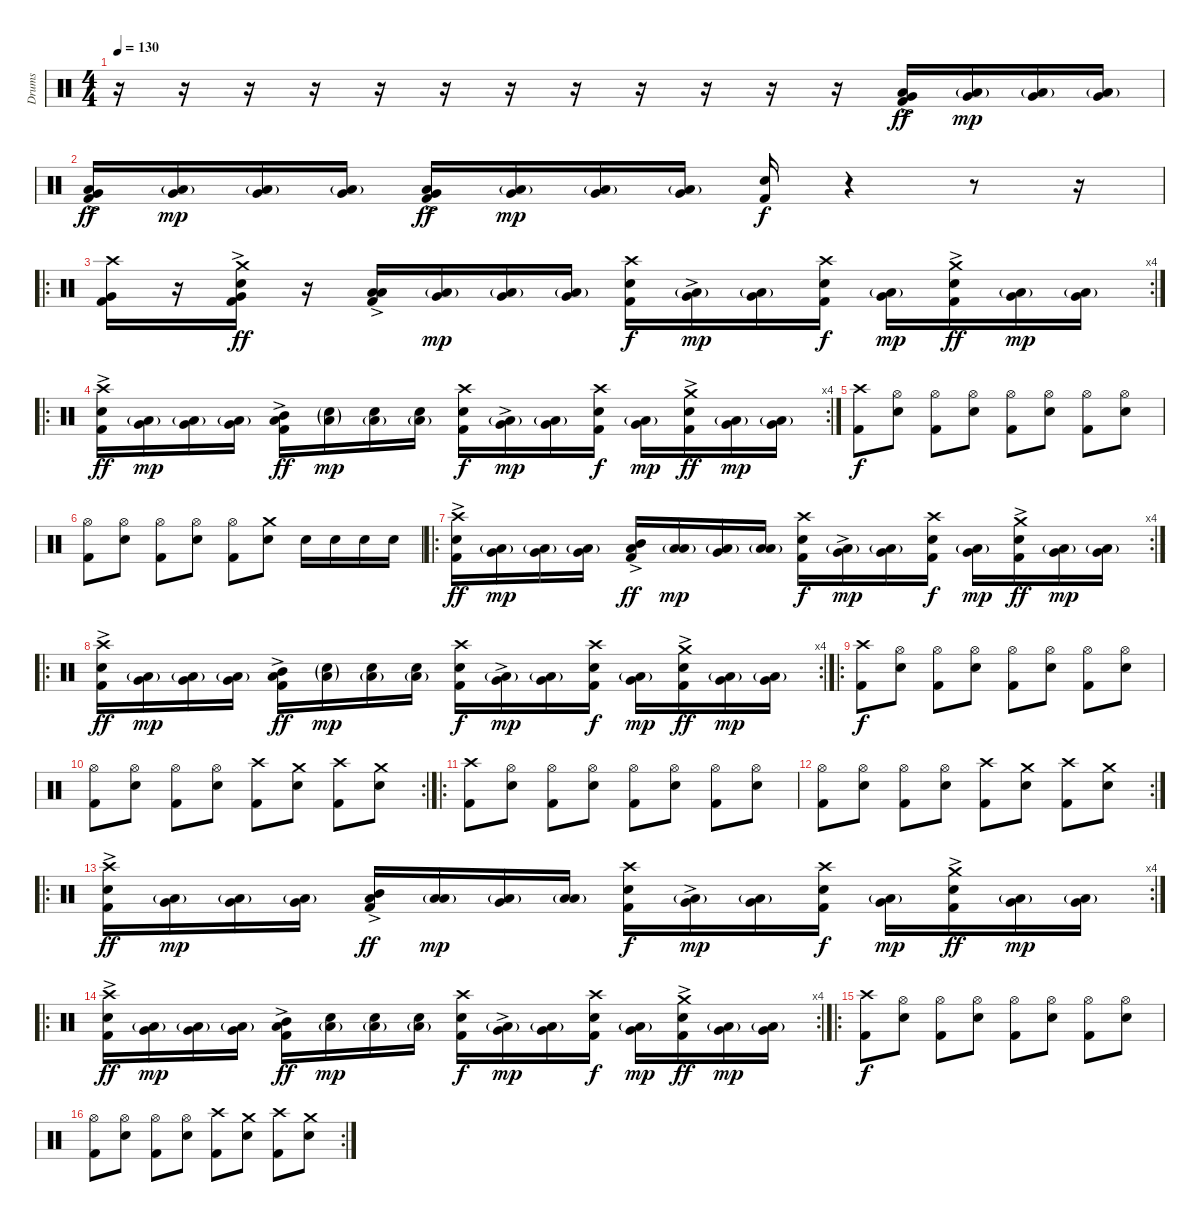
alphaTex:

\track ("Drums" "Drums") {instrument percussion}
\staff {score}
\articulation defaults
\ts (4 4)
\tempo 130
\clef neutral
\ks c
r.16{dy ff} r.16 r.16 r.16 r.16 r.16 r.16 r.16 r.16 r.16 r.16 r.16 ("Very Low Tom (hit)"{ac} "Low Floor Tom (hit)" "Kick (hit) 2").16 ("Very Low Tom (hit)" "Low Floor Tom (hit)"{g}).16{dy mp} ("Very Low Tom (hit)" "Low Floor Tom (hit)"{g}).16 ("Very Low Tom (hit)" "Low Floor Tom (hit)"{g}).16 |
("Very Low Tom (hit)"{ac} "Low Floor Tom (hit)" "Kick (hit) 2").16{dy ff} ("Very Low Tom (hit)" "Low Floor Tom (hit)"{g}).16{dy mp} ("Very Low Tom (hit)" "Low Floor Tom (hit)"{g}).16 ("Very Low Tom (hit)" "Low Floor Tom (hit)"{g}).16 ("Very Low Tom (hit)"{ac} "Low Floor Tom (hit)" "Kick (hit) 2").16{dy ff} ("Very Low Tom (hit)" "Low Floor Tom (hit)"{g}).16{dy mp} ("Very Low Tom (hit)" "Low Floor Tom (hit)"{g}).16 ("Very Low Tom (hit)" "Low Floor Tom (hit)"{g}).16 ("Snare (hit) 2" "Kick (hit) 2").16{dy f} r.4 r.8 r.16 |
\ro
\rc 4
("Crash high (hit)" "Very Low Tom (hit)" "Kick (hit) 2").16 r.16 ("Crash medium (hit)" "Snare (hit) 2"{ac} "Very Low Tom (hit)" "Kick (hit) 2").16{dy ff} r.16 ("Low Tom (hit)"{ac} "Low Floor Tom (hit)" "Kick (hit) 2").16 ("Very Low Tom (hit)" "Low Floor Tom (hit)"{g}).16{dy mp} ("Very Low Tom (hit)" "Low Floor Tom (hit)"{g}).16 ("Very Low Tom (hit)" "Low Floor Tom (hit)"{g}).16 ("Crash high (hit)" "Snare (hit) 2" "Kick (hit) 2").16{dy f} ("Very Low Tom (hit)"{ac} "Low Floor Tom (hit)"{g}).16{dy mp} ("Very Low Tom (hit)" "Low Floor Tom (hit)"{g}).16 ("Crash high (hit)" "Snare (hit) 2" "Kick (hit) 2").16{dy f} ("Very Low Tom (hit)" "Low Floor Tom (hit)"{g}).16{dy mp} ("Crash medium (hit)" "Snare (hit) 2"{ac} "Kick (hit) 2").16{dy ff} ("Very Low Tom (hit)" "Low Floor Tom (hit)"{g}).16{dy mp} ("Very Low Tom (hit)" "Low Floor Tom (hit)"{g}).16 |
\ro
\rc 4
("Crash high (hit)" "Snare (hit) 2"{ac} "Kick (hit) 2").16{dy ff} ("Very Low Tom (hit)" "Low Floor Tom (hit)"{g}).16{dy mp} ("Very Low Tom (hit)" "Low Floor Tom (hit)"{g}).16 ("Very Low Tom (hit)" "Low Floor Tom (hit)"{g}).16 ("Mid Tom (hit)"{ac} "Low Floor Tom (hit)" "Kick (hit) 2").16{dy ff} ("Snare (hit) 2"{g} "Low Floor Tom (hit)"{g}).16{dy mp} ("Snare (hit) 2" "Low Floor Tom (hit)"{g}).16 ("Snare (hit) 2" "Low Floor Tom (hit)"{g}).16 ("Crash high (hit)" "Snare (hit) 2" "Kick (hit) 2").16{dy f} ("Very Low Tom (hit)"{ac} "Low Floor Tom (hit)"{g}).16{dy mp} ("Very Low Tom (hit)" "Low Floor Tom (hit)"{g}).16 ("Crash high (hit)" "Snare (hit) 2" "Kick (hit) 2").16{dy f} ("Very Low Tom (hit)" "Low Floor Tom (hit)"{g}).16{dy mp} ("Crash medium (hit)" "Snare (hit) 2"{ac} "Kick (hit) 2").16{dy ff} ("Very Low Tom (hit)" "Low Floor Tom (hit)"{g}).16{dy mp} ("Very Low Tom (hit)" "Low Floor Tom (hit)"{g}).16 |
("Crash high (hit)" "Kick (hit) 2").8{dy f} ("Hi-Hat (open)" "Snare (hit) 2").8 ("Hi-Hat (open)" "Kick (hit) 2").8 ("Hi-Hat (open)" "Snare (hit) 2").8 ("Hi-Hat (open)" "Kick (hit) 2").8 ("Hi-Hat (open)" "Snare (hit) 2").8 ("Hi-Hat (open)" "Kick (hit) 2").8 ("Hi-Hat (open)" "Snare (hit) 2").8 |
("Hi-Hat (open)" "Kick (hit) 2").8 ("Hi-Hat (open)" "Snare (hit) 2").8 ("Hi-Hat (open)" "Kick (hit) 2").8 ("Hi-Hat (open)" "Snare (hit) 2").8 ("Hi-Hat (open)" "Kick (hit) 2").8 ("Crash medium (hit)" "Snare (hit) 2").8 "Snare (hit) 2".16 "Snare (hit) 2".16 "Snare (hit) 2".16 "Snare (hit) 2".16 |
\ro
\rc 4
("Crash high (hit)" "Snare (hit) 2"{ac} "Kick (hit) 2").16{dy ff} ("Very Low Tom (hit)" "Low Floor Tom (hit)"{g}).16{dy mp} ("Very Low Tom (hit)" "Low Floor Tom (hit)"{g}).16 ("Very Low Tom (hit)" "Low Floor Tom (hit)"{g}).16 ("Mid Tom (hit)"{ac} "Low Floor Tom (hit)" "Kick (hit) 2").16{dy ff} ("Low Tom (hit)" "Low Floor Tom (hit)"{g}).16{dy mp} ("Very Low Tom (hit)" "Low Floor Tom (hit)"{g}).16 ("Low Floor Tom (hit)" "Low Floor Tom (hit)"{g}).16 ("Crash high (hit)" "Snare (hit) 2" "Kick (hit) 2").16{dy f} ("Very Low Tom (hit)"{ac} "Low Floor Tom (hit)"{g}).16{dy mp} ("Very Low Tom (hit)" "Low Floor Tom (hit)"{g}).16 ("Crash high (hit)" "Snare (hit) 2" "Kick (hit) 2").16{dy f} ("Very Low Tom (hit)" "Low Floor Tom (hit)"{g}).16{dy mp} ("Crash medium (hit)" "Snare (hit) 2"{ac} "Kick (hit) 2").16{dy ff} ("Very Low Tom (hit)" "Low Floor Tom (hit)"{g}).16{dy mp} ("Very Low Tom (hit)" "Low Floor Tom (hit)"{g}).16 |
\ro
\rc 4
("Crash high (hit)" "Snare (hit) 2"{ac} "Kick (hit) 2").16{dy ff} ("Very Low Tom (hit)" "Low Floor Tom (hit)"{g}).16{dy mp} ("Very Low Tom (hit)" "Low Floor Tom (hit)"{g}).16 ("Very Low Tom (hit)" "Low Floor Tom (hit)"{g}).16 ("Mid Tom (hit)"{ac} "Low Floor Tom (hit)" "Kick (hit) 2").16{dy ff} ("Snare (hit) 2"{g} "Low Floor Tom (hit)"{g}).16{dy mp} ("Snare (hit) 2" "Low Floor Tom (hit)"{g}).16 ("Snare (hit) 2" "Low Floor Tom (hit)"{g}).16 ("Crash high (hit)" "Snare (hit) 2" "Kick (hit) 2").16{dy f} ("Very Low Tom (hit)"{ac} "Low Floor Tom (hit)"{g}).16{dy mp} ("Very Low Tom (hit)" "Low Floor Tom (hit)"{g}).16 ("Crash high (hit)" "Snare (hit) 2" "Kick (hit) 2").16{dy f} ("Very Low Tom (hit)" "Low Floor Tom (hit)"{g}).16{dy mp} ("Crash medium (hit)" "Snare (hit) 2"{ac} "Kick (hit) 2").16{dy ff} ("Very Low Tom (hit)" "Low Floor Tom (hit)"{g}).16{dy mp} ("Very Low Tom (hit)" "Low Floor Tom (hit)"{g}).16 |
\ro
("Crash high (hit)" "Kick (hit) 2").8{dy f} ("Hi-Hat (open)" "Snare (hit) 2").8 ("Hi-Hat (open)" "Kick (hit) 2").8 ("Hi-Hat (open)" "Snare (hit) 2").8 ("Hi-Hat (open)" "Kick (hit) 2").8 ("Hi-Hat (open)" "Snare (hit) 2").8 ("Hi-Hat (open)" "Kick (hit) 2").8 ("Hi-Hat (open)" "Snare (hit) 2").8 |
\rc 2
("Hi-Hat (open)" "Kick (hit) 2").8 ("Hi-Hat (open)" "Snare (hit) 2").8 ("Hi-Hat (open)" "Kick (hit) 2").8 ("Hi-Hat (open)" "Snare (hit) 2").8 ("Crash high (hit)" "Kick (hit) 2").8 ("Crash medium (hit)" "Snare (hit) 2").8 ("Crash high (hit)" "Kick (hit) 2").8 ("Crash medium (hit)" "Snare (hit) 2").8 |
\ro
("Crash high (hit)" "Kick (hit) 2").8 ("Hi-Hat (open)" "Snare (hit) 2").8 ("Hi-Hat (open)" "Kick (hit) 2").8 ("Hi-Hat (open)" "Snare (hit) 2").8 ("Hi-Hat (open)" "Kick (hit) 2").8 ("Hi-Hat (open)" "Snare (hit) 2").8 ("Hi-Hat (open)" "Kick (hit) 2").8 ("Hi-Hat (open)" "Snare (hit) 2").8 |
\rc 2
("Hi-Hat (open)" "Kick (hit) 2").8 ("Hi-Hat (open)" "Snare (hit) 2").8 ("Hi-Hat (open)" "Kick (hit) 2").8 ("Hi-Hat (open)" "Snare (hit) 2").8 ("Crash high (hit)" "Kick (hit) 2").8 ("Crash medium (hit)" "Snare (hit) 2").8 ("Crash high (hit)" "Kick (hit) 2").8 ("Crash medium (hit)" "Snare (hit) 2").8 |
\ro
\rc 4
("Crash high (hit)" "Snare (hit) 2"{ac} "Kick (hit) 2").16{dy ff} ("Very Low Tom (hit)" "Low Floor Tom (hit)"{g}).16{dy mp} ("Very Low Tom (hit)" "Low Floor Tom (hit)"{g}).16 ("Very Low Tom (hit)" "Low Floor Tom (hit)"{g}).16 ("Mid Tom (hit)"{ac} "Low Floor Tom (hit)" "Kick (hit) 2").16{dy ff} ("Low Tom (hit)" "Low Floor Tom (hit)"{g}).16{dy mp} ("Very Low Tom (hit)" "Low Floor Tom (hit)"{g}).16 ("Low Floor Tom (hit)" "Low Floor Tom (hit)"{g}).16 ("Crash high (hit)" "Snare (hit) 2" "Kick (hit) 2").16{dy f} ("Very Low Tom (hit)"{ac} "Low Floor Tom (hit)"{g}).16{dy mp} ("Very Low Tom (hit)" "Low Floor Tom (hit)"{g}).16 ("Crash high (hit)" "Snare (hit) 2" "Kick (hit) 2").16{dy f} ("Very Low Tom (hit)" "Low Floor Tom (hit)"{g}).16{dy mp} ("Crash medium (hit)" "Snare (hit) 2"{ac} "Kick (hit) 2").16{dy ff} ("Very Low Tom (hit)" "Low Floor Tom (hit)"{g}).16{dy mp} ("Very Low Tom (hit)" "Low Floor Tom (hit)"{g}).16 |
\ro
\rc 4
("Crash high (hit)" "Snare (hit) 2"{ac} "Kick (hit) 2").16{dy ff} ("Very Low Tom (hit)" "Low Floor Tom (hit)"{g}).16{dy mp} ("Very Low Tom (hit)" "Low Floor Tom (hit)"{g}).16 ("Very Low Tom (hit)" "Low Floor Tom (hit)"{g}).16 ("Mid Tom (hit)"{ac} "Low Floor Tom (hit)" "Kick (hit) 2").16{dy ff} ("Snare (hit) 2" "Low Floor Tom (hit)"{g}).16{dy mp} ("Snare (hit) 2" "Low Floor Tom (hit)"{g}).16 ("Snare (hit) 2" "Low Floor Tom (hit)"{g}).16 ("Crash high (hit)" "Snare (hit) 2" "Kick (hit) 2").16{dy f} ("Very Low Tom (hit)"{ac} "Low Floor Tom (hit)"{g}).16{dy mp} ("Very Low Tom (hit)" "Low Floor Tom (hit)"{g}).16 ("Crash high (hit)" "Snare (hit) 2" "Kick (hit) 2").16{dy f} ("Very Low Tom (hit)" "Low Floor Tom (hit)"{g}).16{dy mp} ("Crash medium (hit)" "Snare (hit) 2"{ac} "Kick (hit) 2").16{dy ff} ("Very Low Tom (hit)" "Low Floor Tom (hit)"{g}).16{dy mp} ("Very Low Tom (hit)" "Low Floor Tom (hit)"{g}).16 |
\ro
("Crash high (hit)" "Kick (hit) 2").8{dy f} ("Hi-Hat (open)" "Snare (hit) 2").8 ("Hi-Hat (open)" "Kick (hit) 2").8 ("Hi-Hat (open)" "Snare (hit) 2").8 ("Hi-Hat (open)" "Kick (hit) 2").8 ("Hi-Hat (open)" "Snare (hit) 2").8 ("Hi-Hat (open)" "Kick (hit) 2").8 ("Hi-Hat (open)" "Snare (hit) 2").8 |
\rc 2
("Hi-Hat (open)" "Kick (hit) 2").8 ("Hi-Hat (open)" "Snare (hit) 2").8 ("Hi-Hat (open)" "Kick (hit) 2").8 ("Hi-Hat (open)" "Snare (hit) 2").8 ("Crash high (hit)" "Kick (hit) 2").8 ("Crash medium (hit)" "Snare (hit) 2").8 ("Crash high (hit)" "Kick (hit) 2").8 ("Crash medium (hit)" "Snare (hit) 2").8
